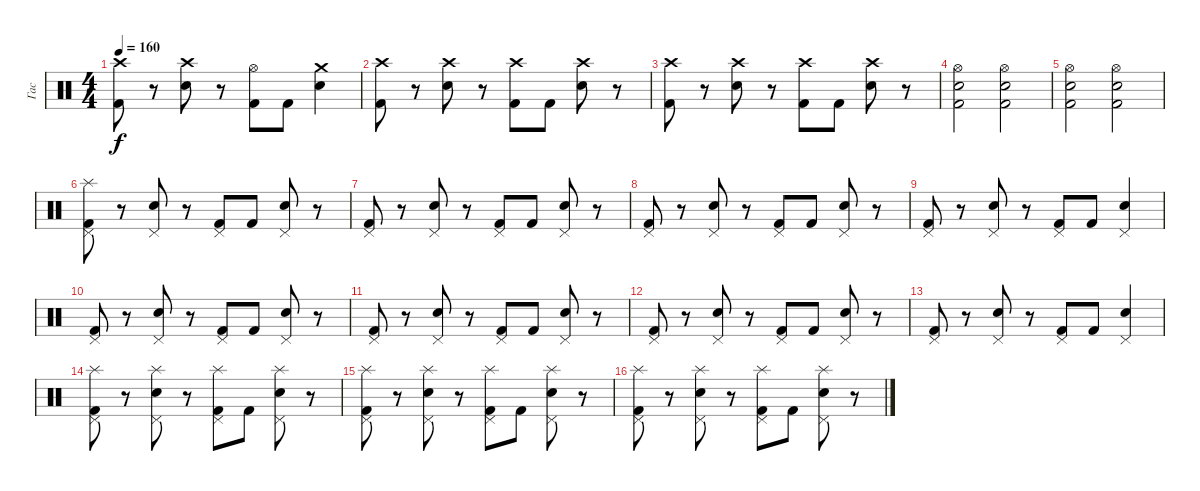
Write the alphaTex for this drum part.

\track ("Гас" "Гас") {instrument percussion}
\staff {score}
\articulation defaults
\ts (4 4)
\tempo 160
\clef neutral
\ks c
("Crash high (hit)" "Kick (hit) 2").8{dy f} r.8 ("Crash high (hit)" "Electric Snare (hit)").8 r.8 ("Hi-Hat (open)" "Kick (hit) 2").8 "Kick (hit) 2".8 ("Crash medium (hit)" "Electric Snare (hit)").4 |
("Crash high (hit)" "Kick (hit) 2").8 r.8 ("Crash high (hit)" "Electric Snare (hit)").8 r.8 ("Crash high (hit)" "Kick (hit) 2").8 "Kick (hit) 2".8 ("Crash high (hit)" "Electric Snare (hit)").8 r.8 |
("Crash high (hit)" "Kick (hit) 2").8 r.8 ("Crash high (hit)" "Electric Snare (hit)").8 r.8 ("Crash high (hit)" "Kick (hit) 2").8 "Kick (hit) 2".8 ("Crash high (hit)" "Electric Snare (hit)").8 r.8 |
("Hi-Hat (open)" "Electric Snare (hit)" "Kick (hit) 2").2 ("Hi-Hat (open)" "Electric Snare (hit)" "Kick (hit) 2").2 |
("Hi-Hat (open)" "Electric Snare (hit)" "Kick (hit) 2").2 ("Hi-Hat (open)" "Electric Snare (hit)" "Kick (hit) 2").2 |
("Pedal Hi-Hat (hit)" "Splash (hit)" "Kick (hit) 2").8 r.8 ("Pedal Hi-Hat (hit)" "Electric Snare (hit)").8 r.8 ("Pedal Hi-Hat (hit)" "Kick (hit) 2").8 "Kick (hit) 2".8 ("Pedal Hi-Hat (hit)" "Electric Snare (hit)").8 r.8 |
("Pedal Hi-Hat (hit)" "Kick (hit) 2").8 r.8 ("Pedal Hi-Hat (hit)" "Electric Snare (hit)").8 r.8 ("Pedal Hi-Hat (hit)" "Kick (hit) 2").8 "Kick (hit) 2".8 ("Pedal Hi-Hat (hit)" "Electric Snare (hit)").8 r.8 |
("Pedal Hi-Hat (hit)" "Kick (hit) 2").8 r.8 ("Pedal Hi-Hat (hit)" "Electric Snare (hit)").8 r.8 ("Pedal Hi-Hat (hit)" "Kick (hit) 2").8 "Kick (hit) 2".8 ("Pedal Hi-Hat (hit)" "Electric Snare (hit)").8 r.8 |
("Pedal Hi-Hat (hit)" "Kick (hit) 2").8 r.8 ("Pedal Hi-Hat (hit)" "Electric Snare (hit)").8 r.8 ("Pedal Hi-Hat (hit)" "Kick (hit) 2").8 "Kick (hit) 2".8 ("Pedal Hi-Hat (hit)" "Electric Snare (hit)").4 |
("Pedal Hi-Hat (hit)" "Kick (hit) 2").8 r.8 ("Pedal Hi-Hat (hit)" "Electric Snare (hit)").8 r.8 ("Pedal Hi-Hat (hit)" "Kick (hit) 2").8 "Kick (hit) 2".8 ("Pedal Hi-Hat (hit)" "Electric Snare (hit)").8 r.8 |
("Pedal Hi-Hat (hit)" "Kick (hit) 2").8 r.8 ("Pedal Hi-Hat (hit)" "Electric Snare (hit)").8 r.8 ("Pedal Hi-Hat (hit)" "Kick (hit) 2").8 "Kick (hit) 2".8 ("Pedal Hi-Hat (hit)" "Electric Snare (hit)").8 r.8 |
("Pedal Hi-Hat (hit)" "Kick (hit) 2").8 r.8 ("Pedal Hi-Hat (hit)" "Electric Snare (hit)").8 r.8 ("Pedal Hi-Hat (hit)" "Kick (hit) 2").8 "Kick (hit) 2".8 ("Pedal Hi-Hat (hit)" "Electric Snare (hit)").8 r.8 |
("Pedal Hi-Hat (hit)" "Kick (hit) 2").8 r.8 ("Pedal Hi-Hat (hit)" "Electric Snare (hit)").8 r.8 ("Pedal Hi-Hat (hit)" "Kick (hit) 2").8 "Kick (hit) 2".8 ("Pedal Hi-Hat (hit)" "Electric Snare (hit)").4 |
("Pedal Hi-Hat (hit)" "Splash (hit)" "Kick (hit) 2").8 r.8 ("Pedal Hi-Hat (hit)" "Splash (hit)" "Electric Snare (hit)").8 r.8 ("Pedal Hi-Hat (hit)" "Splash (hit)" "Kick (hit) 2").8 "Kick (hit) 2".8 ("Pedal Hi-Hat (hit)" "Splash (hit)" "Electric Snare (hit)").8 r.8 |
("Pedal Hi-Hat (hit)" "Splash (hit)" "Kick (hit) 2").8 r.8 ("Pedal Hi-Hat (hit)" "Splash (hit)" "Electric Snare (hit)").8 r.8 ("Pedal Hi-Hat (hit)" "Splash (hit)" "Kick (hit) 2").8 "Kick (hit) 2".8 ("Pedal Hi-Hat (hit)" "Splash (hit)" "Electric Snare (hit)").8 r.8 |
("Pedal Hi-Hat (hit)" "Splash (hit)" "Kick (hit) 2").8 r.8 ("Pedal Hi-Hat (hit)" "Splash (hit)" "Electric Snare (hit)").8 r.8 ("Pedal Hi-Hat (hit)" "Splash (hit)" "Kick (hit) 2").8 "Kick (hit) 2".8 ("Pedal Hi-Hat (hit)" "Splash (hit)" "Electric Snare (hit)").8 r.8
